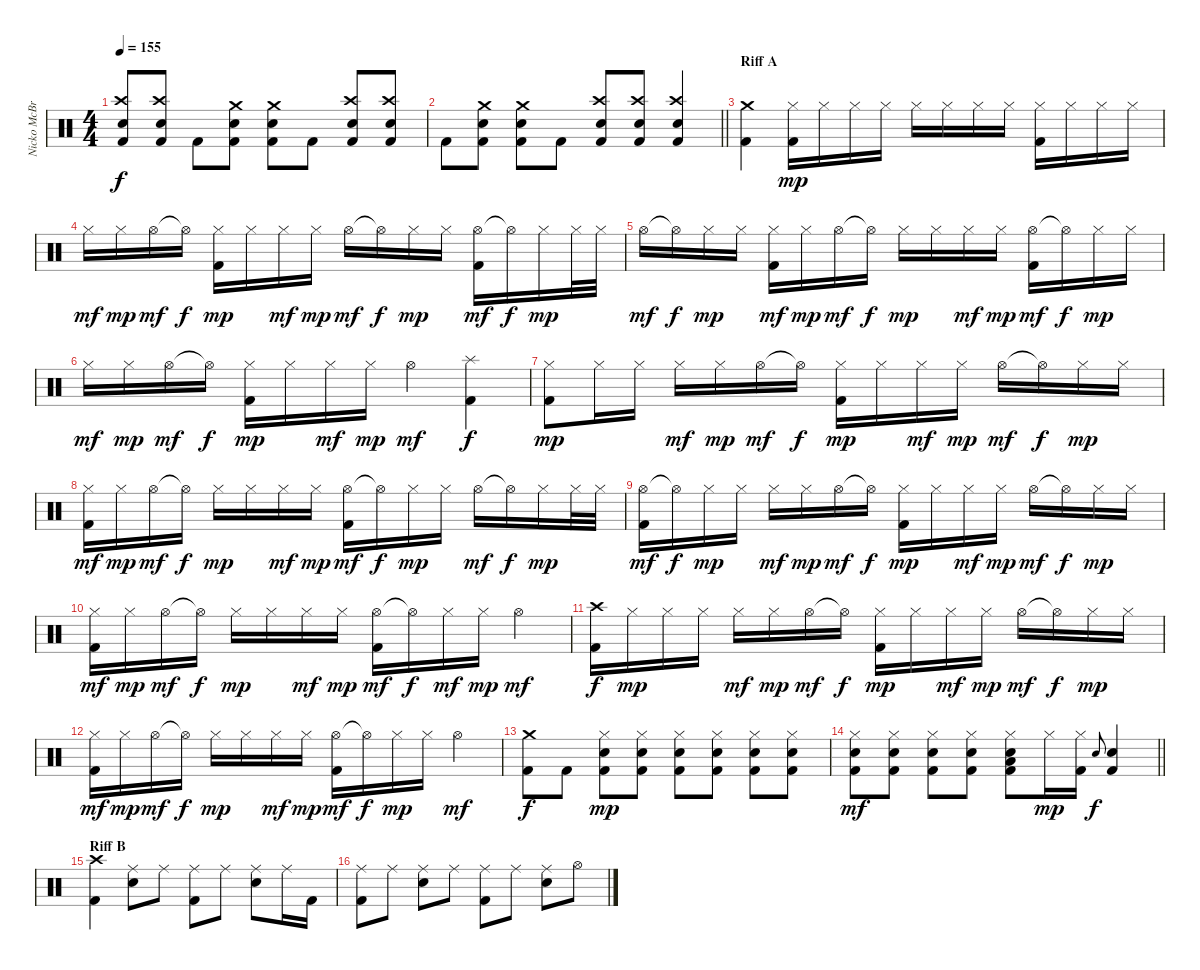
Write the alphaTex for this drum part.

\track ("Nicko McBrain" "Nicko McBr") {instrument percussion}
\staff {score}
\articulation defaults
\ts (4 4)
\tempo 155
\clef neutral
\ks c
("Snare (hit) 2" "Crash high (hit)" "Kick (hit) 2").8{dy f} ("Snare (hit) 2" "Crash high (hit)" "Kick (hit) 2").8 "Kick (hit) 2".8 ("Snare (hit) 2" "Crash medium (hit)" "Kick (hit) 2").8 ("Snare (hit) 2" "Crash medium (hit)" "Kick (hit) 2").8 "Kick (hit) 2".8 ("Snare (hit) 2" "Crash high (hit)" "Kick (hit) 2").8 ("Snare (hit) 2" "Crash high (hit)" "Kick (hit) 2").8 |
\barLineRight lightlight "Kick (hit) 2".8
("Snare (hit) 2" "Crash medium (hit)" "Kick (hit) 2").8 ("Snare (hit) 2" "Crash medium (hit)" "Kick (hit) 2").8 "Kick (hit) 2".8 ("Snare (hit) 2" "Crash high (hit)" "Kick (hit) 2").8 ("Snare (hit) 2" "Crash high (hit)" "Kick (hit) 2").8 ("Snare (hit) 2" "Crash high (hit)" "Kick (hit) 2").4 |
\section ("" "Riff A")
("Crash medium (hit)" "Kick (hit) 2").4 ("Hi-Hat (closed)" "Kick (hit) 2").16{dy mp} "Hi-Hat (closed)".16 "Hi-Hat (closed)".16 "Hi-Hat (closed)".16 "Hi-Hat (closed)".16 "Hi-Hat (closed)".16 "Hi-Hat (closed)".16 "Hi-Hat (closed)".16 ("Hi-Hat (closed)" "Kick (hit) 2").16 "Hi-Hat (closed)".16 "Hi-Hat (closed)".16 "Hi-Hat (closed)".16 |
"Hi-Hat (closed)".16{dy mf} "Hi-Hat (closed)".16{dy mp} "Hi-Hat (open)".16{dy mf} "Hi-Hat (open)"{t}.16{dy f} ("Hi-Hat (closed)" "Kick (hit) 2").16{dy mp} "Hi-Hat (closed)".16 "Hi-Hat (closed)".16{dy mf} "Hi-Hat (closed)".16{dy mp} "Hi-Hat (open)".16{dy mf} "Hi-Hat (open)"{t}.16{dy f} "Hi-Hat (closed)".16{dy mp} "Hi-Hat (closed)".16 ("Hi-Hat (open)" "Kick (hit) 2").16{dy mf} "Hi-Hat (open)"{t}.16{dy f} "Hi-Hat (closed)".16{dy mp} "Hi-Hat (closed)".32 "Hi-Hat (closed)".32 |
"Hi-Hat (open)".16{dy mf} "Hi-Hat (open)"{t}.16{dy f} "Hi-Hat (closed)".16{dy mp} "Hi-Hat (closed)".16 ("Hi-Hat (closed)" "Kick (hit) 2").16{dy mf} "Hi-Hat (closed)".16{dy mp} "Hi-Hat (open)".16{dy mf} "Hi-Hat (open)"{t}.16{dy f} "Hi-Hat (closed)".16{dy mp} "Hi-Hat (closed)".16 "Hi-Hat (closed)".16{dy mf} "Hi-Hat (closed)".16{dy mp} ("Hi-Hat (open)" "Kick (hit) 2").16{dy mf} "Hi-Hat (open)"{t}.16{dy f} "Hi-Hat (closed)".16{dy mp} "Hi-Hat (closed)".16 |
"Hi-Hat (closed)".16{dy mf} "Hi-Hat (closed)".16{dy mp} "Hi-Hat (open)".16{dy mf} "Hi-Hat (open)"{t}.16{dy f} ("Hi-Hat (closed)" "Kick (hit) 2").16{dy mp} "Hi-Hat (closed)".16 "Hi-Hat (closed)".16{dy mf} "Hi-Hat (closed)".16{dy mp} "Hi-Hat (open)".4{dy mf} ("Splash (hit)" "Kick (hit) 2").4{dy f} |
("Hi-Hat (closed)" "Kick (hit) 2").8{dy mp} "Hi-Hat (closed)".16 "Hi-Hat (closed)".16 "Hi-Hat (closed)".16{dy mf} "Hi-Hat (closed)".16{dy mp} "Hi-Hat (open)".16{dy mf} "Hi-Hat (open)"{t}.16{dy f} ("Hi-Hat (closed)" "Kick (hit) 2").16{dy mp} "Hi-Hat (closed)".16 "Hi-Hat (closed)".16{dy mf} "Hi-Hat (closed)".16{dy mp} "Hi-Hat (open)".16{dy mf} "Hi-Hat (open)"{t}.16{dy f} "Hi-Hat (closed)".16{dy mp} "Hi-Hat (closed)".16 |
("Hi-Hat (closed)" "Kick (hit) 2").16{dy mf} "Hi-Hat (closed)".16{dy mp} "Hi-Hat (open)".16{dy mf} "Hi-Hat (open)"{t}.16{dy f} "Hi-Hat (closed)".16{dy mp} "Hi-Hat (closed)".16 "Hi-Hat (closed)".16{dy mf} "Hi-Hat (closed)".16{dy mp} ("Hi-Hat (open)" "Kick (hit) 2").16{dy mf} "Hi-Hat (open)"{t}.16{dy f} "Hi-Hat (closed)".16{dy mp} "Hi-Hat (closed)".16 "Hi-Hat (open)".16{dy mf} "Hi-Hat (open)"{t}.16{dy f} "Hi-Hat (closed)".16{dy mp} "Hi-Hat (closed)".32 "Hi-Hat (closed)".32 |
("Hi-Hat (open)" "Kick (hit) 2").16{dy mf} "Hi-Hat (open)"{t}.16{dy f} "Hi-Hat (closed)".16{dy mp} "Hi-Hat (closed)".16 "Hi-Hat (closed)".16{dy mf} "Hi-Hat (closed)".16{dy mp} "Hi-Hat (open)".16{dy mf} "Hi-Hat (open)"{t}.16{dy f} ("Hi-Hat (closed)" "Kick (hit) 2").16{dy mp} "Hi-Hat (closed)".16 "Hi-Hat (closed)".16{dy mf} "Hi-Hat (closed)".16{dy mp} "Hi-Hat (open)".16{dy mf} "Hi-Hat (open)"{t}.16{dy f} "Hi-Hat (closed)".16{dy mp} "Hi-Hat (closed)".16 |
("Hi-Hat (closed)" "Kick (hit) 2").16{dy mf} "Hi-Hat (closed)".16{dy mp} "Hi-Hat (open)".16{dy mf} "Hi-Hat (open)"{t}.16{dy f} "Hi-Hat (closed)".16{dy mp} "Hi-Hat (closed)".16 "Hi-Hat (closed)".16{dy mf} "Hi-Hat (closed)".16{dy mp} ("Hi-Hat (open)" "Kick (hit) 2").16{dy mf} "Hi-Hat (open)"{t}.16{dy f} "Hi-Hat (closed)".16{dy mf} "Hi-Hat (closed)".16{dy mp} "Hi-Hat (open)".4{dy mf} |
("Crash high (hit)" "Kick (hit) 2").16{dy f} "Hi-Hat (closed)".16{dy mp} "Hi-Hat (closed)".16 "Hi-Hat (closed)".16 "Hi-Hat (closed)".16{dy mf} "Hi-Hat (closed)".16{dy mp} "Hi-Hat (open)".16{dy mf} "Hi-Hat (open)"{t}.16{dy f} ("Hi-Hat (closed)" "Kick (hit) 2").16{dy mp} "Hi-Hat (closed)".16 "Hi-Hat (closed)".16{dy mf} "Hi-Hat (closed)".16{dy mp} "Hi-Hat (open)".16{dy mf} "Hi-Hat (open)"{t}.16{dy f} "Hi-Hat (closed)".16{dy mp} "Hi-Hat (closed)".16 |
("Hi-Hat (closed)" "Kick (hit) 2").16{dy mf} "Hi-Hat (closed)".16{dy mp} "Hi-Hat (open)".16{dy mf} "Hi-Hat (open)"{t}.16{dy f} "Hi-Hat (closed)".16{dy mp} "Hi-Hat (closed)".16 "Hi-Hat (closed)".16{dy mf} "Hi-Hat (closed)".16{dy mp} ("Hi-Hat (open)" "Kick (hit) 2").16{dy mf} "Hi-Hat (open)"{t}.16{dy f} "Hi-Hat (closed)".16{dy mp} "Hi-Hat (closed)".16 "Hi-Hat (open)".4{dy mf} |
("Crash medium (hit)" "Kick (hit) 2").8{dy f} "Kick (hit) 2".8 ("Hi-Hat (closed)" "Snare (hit) 2" "Kick (hit) 2").8{dy mp} ("Hi-Hat (closed)" "Snare (hit) 2" "Kick (hit) 2").8 ("Hi-Hat (closed)" "Snare (hit) 2" "Kick (hit) 2").8 ("Hi-Hat (closed)" "Snare (hit) 2" "Kick (hit) 2").8 ("Hi-Hat (closed)" "Snare (hit) 2" "Kick (hit) 2").8 ("Hi-Hat (closed)" "Snare (hit) 2" "Kick (hit) 2").8 |
\barLineRight lightlight
("Hi-Hat (closed)" "Snare (hit) 2" "Kick (hit) 2").8{dy mf} ("Hi-Hat (closed)" "Snare (hit) 2" "Kick (hit) 2").8 ("Hi-Hat (closed)" "Snare (hit) 2" "Kick (hit) 2").8 ("Hi-Hat (closed)" "Snare (hit) 2" "Kick (hit) 2").8 ("Hi-Hat (closed)" "Snare (hit) 2" "Low Tom (hit)" "Kick (hit) 2").8 "Hi-Hat (closed)".16{dy mp} ("Hi-Hat (closed)" "Kick (hit) 2").16 "Snare (hit) 2".8{gr onbeat dy f} ("Snare (hit) 2" "Kick (hit) 2").4 |
\section ("" "Riff B")
("Crash high (hit)" "Kick (hit) 2").4 ("Ride (middle)" "Snare (hit) 2").8 "Ride (middle)".8 ("Ride (middle)" "Kick (hit) 2").8 "Ride (middle)".8 ("Ride (middle)" "Snare (hit) 2").8 "Ride (middle)".16 "Kick (hit) 2".16 |
("Ride (middle)" "Kick (hit) 2").8 "Ride (middle)".8 ("Ride (middle)" "Snare (hit) 2").8 "Ride (middle)".8 ("Ride (middle)" "Kick (hit) 2").8 "Ride (middle)".8 ("Ride (middle)" "Snare (hit) 2").8 "Hi-Hat (open)".8
